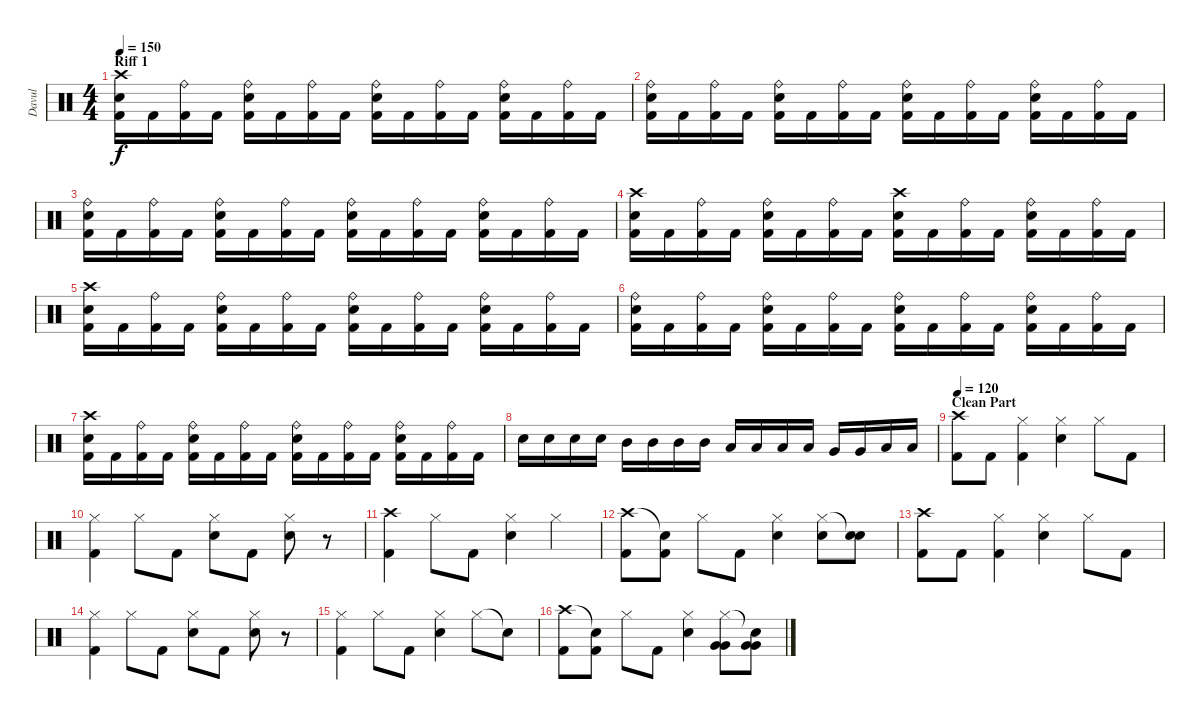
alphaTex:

\track ("Davul" "Davul") {instrument percussion}
\staff {score}
\articulation defaults
\ts (4 4)
\section ("" "Riff 1")
\tempo 150
\clef neutral
\ks c
("Crash high (hit)" "Electric Snare (hit)" "Kick (hit) 2").16{dy f} "Kick (hit) 2".16 ("Ride (bell)" "Kick (hit) 2").16 "Kick (hit) 2".16 ("Ride (bell)" "Electric Snare (hit)" "Kick (hit) 2").16 "Kick (hit) 2".16 ("Ride (bell)" "Kick (hit) 2").16 "Kick (hit) 2".16 ("Ride (bell)" "Electric Snare (hit)" "Kick (hit) 2").16 "Kick (hit) 2".16 ("Ride (bell)" "Kick (hit) 2").16 "Kick (hit) 2".16 ("Ride (bell)" "Electric Snare (hit)" "Kick (hit) 2").16 "Kick (hit) 2".16 ("Ride (bell)" "Kick (hit) 2").16 "Kick (hit) 2".16 |
("Ride (bell)" "Electric Snare (hit)" "Kick (hit) 2").16 "Kick (hit) 2".16 ("Ride (bell)" "Kick (hit) 2").16 "Kick (hit) 2".16 ("Ride (bell)" "Electric Snare (hit)" "Kick (hit) 2").16 "Kick (hit) 2".16 ("Ride (bell)" "Kick (hit) 2").16 "Kick (hit) 2".16 ("Ride (bell)" "Electric Snare (hit)" "Kick (hit) 2").16 "Kick (hit) 2".16 ("Ride (bell)" "Kick (hit) 2").16 "Kick (hit) 2".16 ("Ride (bell)" "Electric Snare (hit)" "Kick (hit) 2").16 "Kick (hit) 2".16 ("Ride (bell)" "Kick (hit) 2").16 "Kick (hit) 2".16 |
("Ride (bell)" "Electric Snare (hit)" "Kick (hit) 2").16 "Kick (hit) 2".16 ("Ride (bell)" "Kick (hit) 2").16 "Kick (hit) 2".16 ("Ride (bell)" "Electric Snare (hit)" "Kick (hit) 2").16 "Kick (hit) 2".16 ("Ride (bell)" "Kick (hit) 2").16 "Kick (hit) 2".16 ("Ride (bell)" "Electric Snare (hit)" "Kick (hit) 2").16 "Kick (hit) 2".16 ("Ride (bell)" "Kick (hit) 2").16 "Kick (hit) 2".16 ("Ride (bell)" "Electric Snare (hit)" "Kick (hit) 2").16 "Kick (hit) 2".16 ("Ride (bell)" "Kick (hit) 2").16 "Kick (hit) 2".16 |
("Crash high (hit)" "Electric Snare (hit)" "Kick (hit) 2").16 "Kick (hit) 2".16 ("Ride (bell)" "Kick (hit) 2").16 "Kick (hit) 2".16 ("Ride (bell)" "Electric Snare (hit)" "Kick (hit) 2").16 "Kick (hit) 2".16 ("Ride (bell)" "Kick (hit) 2").16 "Kick (hit) 2".16 ("Crash high (hit)" "Electric Snare (hit)" "Kick (hit) 2").16 "Kick (hit) 2".16 ("Ride (bell)" "Kick (hit) 2").16 "Kick (hit) 2".16 ("Ride (bell)" "Electric Snare (hit)" "Kick (hit) 2").16 "Kick (hit) 2".16 ("Ride (bell)" "Kick (hit) 2").16 "Kick (hit) 2".16 |
("Crash high (hit)" "Electric Snare (hit)" "Kick (hit) 2").16 "Kick (hit) 2".16 ("Ride (bell)" "Kick (hit) 2").16 "Kick (hit) 2".16 ("Ride (bell)" "Electric Snare (hit)" "Kick (hit) 2").16 "Kick (hit) 2".16 ("Ride (bell)" "Kick (hit) 2").16 "Kick (hit) 2".16 ("Ride (bell)" "Electric Snare (hit)" "Kick (hit) 2").16 "Kick (hit) 2".16 ("Ride (bell)" "Kick (hit) 2").16 "Kick (hit) 2".16 ("Ride (bell)" "Electric Snare (hit)" "Kick (hit) 2").16 "Kick (hit) 2".16 ("Ride (bell)" "Kick (hit) 2").16 "Kick (hit) 2".16 |
("Ride (bell)" "Electric Snare (hit)" "Kick (hit) 2").16 "Kick (hit) 2".16 ("Ride (bell)" "Kick (hit) 2").16 "Kick (hit) 2".16 ("Ride (bell)" "Electric Snare (hit)" "Kick (hit) 2").16 "Kick (hit) 2".16 ("Ride (bell)" "Kick (hit) 2").16 "Kick (hit) 2".16 ("Ride (bell)" "Electric Snare (hit)" "Kick (hit) 2").16 "Kick (hit) 2".16 ("Ride (bell)" "Kick (hit) 2").16 "Kick (hit) 2".16 ("Ride (bell)" "Electric Snare (hit)" "Kick (hit) 2").16 "Kick (hit) 2".16 ("Ride (bell)" "Kick (hit) 2").16 "Kick (hit) 2".16 |
("Crash high (hit)" "Electric Snare (hit)" "Kick (hit) 2").16 "Kick (hit) 2".16 ("Ride (bell)" "Kick (hit) 2").16 "Kick (hit) 2".16 ("Ride (bell)" "Electric Snare (hit)" "Kick (hit) 2").16 "Kick (hit) 2".16 ("Ride (bell)" "Kick (hit) 2").16 "Kick (hit) 2".16 ("Ride (bell)" "Electric Snare (hit)" "Kick (hit) 2").16 "Kick (hit) 2".16 ("Ride (bell)" "Kick (hit) 2").16 "Kick (hit) 2".16 ("Ride (bell)" "Electric Snare (hit)" "Kick (hit) 2").16 "Kick (hit) 2".16 ("Ride (bell)" "Kick (hit) 2").16 "Kick (hit) 2".16 |
"Electric Snare (hit)".16 "Electric Snare (hit)".16 "Electric Snare (hit)".16 "Electric Snare (hit)".16 "Mid Tom (hit)".16 "Mid Tom (hit)".16 "Mid Tom (hit)".16 "Mid Tom (hit)".16 "Low Tom (hit)".16 "Low Tom (hit)".16 "Low Tom (hit)".16 "Low Tom (hit)".16 "Very Low Tom (hit)".16 "Very Low Tom (hit)".16 "Low Floor Tom (hit)".16 "Low Floor Tom (hit)".16 |
\section ("" "Clean Part")
\tempo 120
("Crash high (hit)" "Kick (hit) 2").8{volume 11} "Kick (hit) 2".8 ("Hi-Hat (closed)" "Kick (hit) 2").4 ("Hi-Hat (closed)" "Electric Snare (hit)").4 "Hi-Hat (closed)".8 "Kick (hit) 2".8 |
("Hi-Hat (closed)" "Kick (hit) 2").4 "Hi-Hat (closed)".8 "Kick (hit) 2".8 ("Hi-Hat (closed)" "Electric Snare (hit)").8 "Kick (hit) 2".8 ("Hi-Hat (closed)" "Electric Snare (hit)").8 r.8 |
("Crash high (hit)" "Kick (hit) 2").4 "Hi-Hat (closed)".8 "Kick (hit) 2".8 ("Hi-Hat (closed)" "Electric Snare (hit)").4 "Hi-Hat (closed)".4 |
("Crash high (hit)" "Kick (hit) 2").8 ("Snare (hit)"{t} "Kick (hit) 2").8 "Hi-Hat (closed)".8 "Kick (hit) 2".8 ("Hi-Hat (closed)" "Electric Snare (hit)").4 ("Hi-Hat (closed)" "Electric Snare (hit)").8 ("Snare (hit)"{t} "Electric Snare (hit)").8 |
("Crash high (hit)" "Kick (hit) 2").8 "Kick (hit) 2".8 ("Hi-Hat (closed)" "Kick (hit) 2").4 ("Hi-Hat (closed)" "Electric Snare (hit)").4 "Hi-Hat (closed)".8 "Kick (hit) 2".8 |
("Hi-Hat (closed)" "Kick (hit) 2").4 "Hi-Hat (closed)".8 "Kick (hit) 2".8 ("Hi-Hat (closed)" "Electric Snare (hit)").8 "Kick (hit) 2".8 ("Hi-Hat (closed)" "Electric Snare (hit)").8 r.8 |
("Hi-Hat (closed)" "Kick (hit) 2").4 "Hi-Hat (closed)".8 "Kick (hit) 2".8 ("Hi-Hat (closed)" "Electric Snare (hit)").4 "Hi-Hat (closed)".8 "Snare (hit)"{t}.8 |
("Crash high (hit)" "Kick (hit) 2").8 ("Snare (hit)"{t} "Kick (hit) 2").8 "Hi-Hat (closed)".8 "Kick (hit) 2".8 ("Hi-Hat (closed)" "Electric Snare (hit)").4 ("Hi-Hat (closed)" "Very Low Tom (hit)" "Very Low Tom (hit)").8 ("Snare (hit)"{t} "Very Low Tom (hit)" "Very Low Tom (hit)").8
